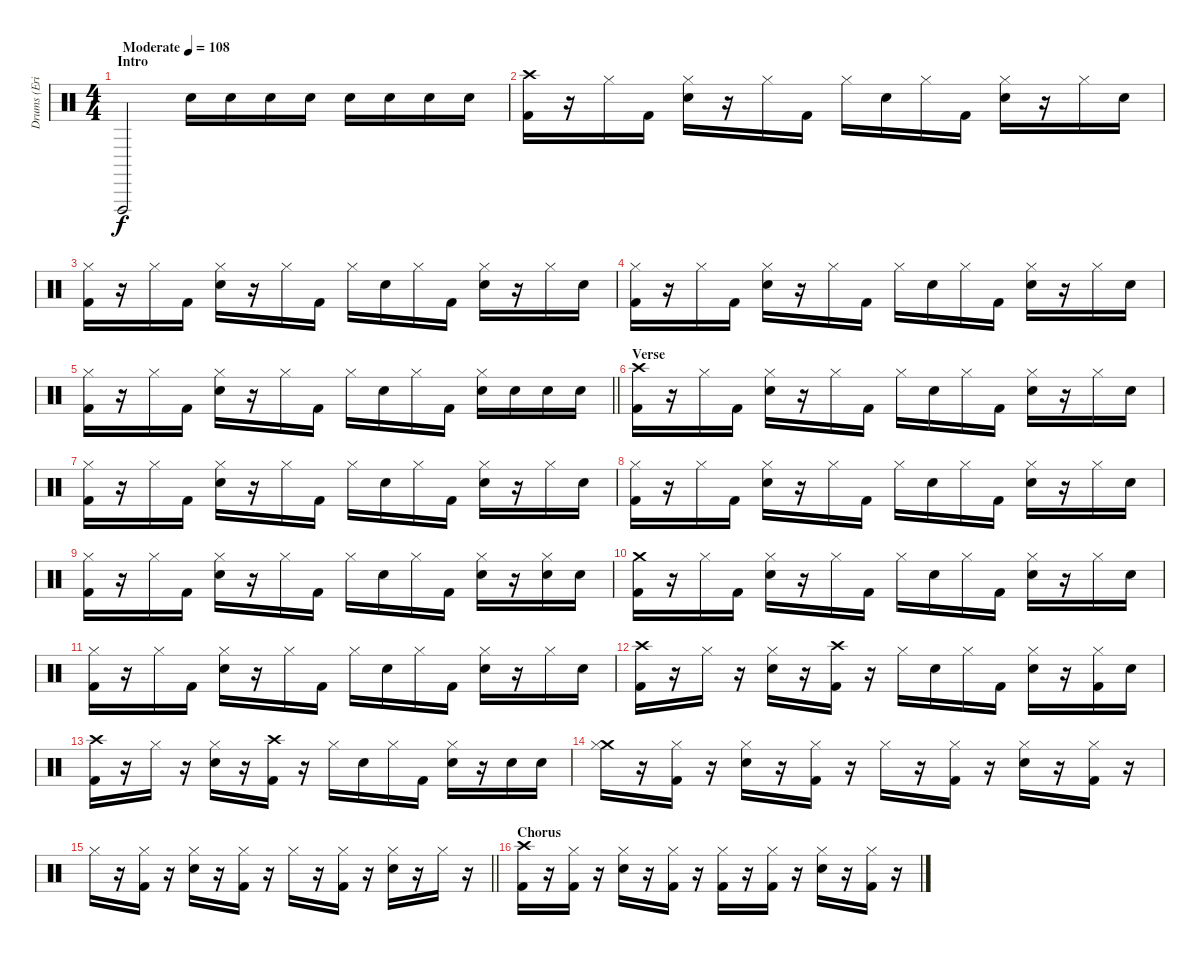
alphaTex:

\track ("Drums (Eric Kretz)" "Drums (Eri") {instrument percussion}
\staff {score}
\articulation defaults
\ts (4 4)
\section ("" "Intro")
\tempo (108 "Moderate")
\clef neutral
\ks c "Vibraslap (hit)".2{dy f} "Electric Snare (hit)".16 "Electric Snare (hit)".16 "Electric Snare (hit)".16 "Electric Snare (hit)".16 "Electric Snare (hit)".16 "Electric Snare (hit)".16 "Electric Snare (hit)".16 "Electric Snare (hit)".16
|
("Crash high (hit)" "Kick (hit) 2").16 r.16 "Hi-Hat (closed)".16 "Kick (hit) 2".16 ("Hi-Hat (closed)" "Electric Snare (hit)").16 r.16 "Hi-Hat (closed)".16 "Kick (hit) 2".16 "Hi-Hat (closed)".16 "Electric Snare (hit)".16 "Hi-Hat (closed)".16 "Kick (hit) 2".16 ("Hi-Hat (closed)" "Electric Snare (hit)").16 r.16 "Hi-Hat (closed)".16 "Electric Snare (hit)".16 |
("Hi-Hat (closed)" "Kick (hit) 2").16 r.16 "Hi-Hat (closed)".16 "Kick (hit) 2".16 ("Hi-Hat (closed)" "Electric Snare (hit)").16 r.16 "Hi-Hat (closed)".16 "Kick (hit) 2".16 "Hi-Hat (closed)".16 "Electric Snare (hit)".16 "Hi-Hat (closed)".16 "Kick (hit) 2".16 ("Hi-Hat (closed)" "Electric Snare (hit)").16 r.16 "Hi-Hat (closed)".16 "Electric Snare (hit)".16 |
("Hi-Hat (closed)" "Kick (hit) 2").16 r.16 "Hi-Hat (closed)".16 "Kick (hit) 2".16 ("Hi-Hat (closed)" "Electric Snare (hit)").16 r.16 "Hi-Hat (closed)".16 "Kick (hit) 2".16 "Hi-Hat (closed)".16 "Electric Snare (hit)".16 "Hi-Hat (closed)".16 "Kick (hit) 2".16 ("Hi-Hat (closed)" "Electric Snare (hit)").16 r.16 "Hi-Hat (closed)".16 "Electric Snare (hit)".16 |
\barLineRight lightlight
("Hi-Hat (closed)" "Kick (hit) 2").16 r.16 "Hi-Hat (closed)".16 "Kick (hit) 2".16 ("Hi-Hat (closed)" "Electric Snare (hit)").16 r.16 "Hi-Hat (closed)".16 "Kick (hit) 2".16 "Hi-Hat (closed)".16 "Electric Snare (hit)".16 "Hi-Hat (closed)".16 "Kick (hit) 2".16 ("Hi-Hat (closed)" "Electric Snare (hit)").16 "Electric Snare (hit)".16 "Electric Snare (hit)".16 "Electric Snare (hit)".16 |
\section ("" "Verse")
("Crash high (hit)" "Kick (hit) 2").16 r.16 "Hi-Hat (closed)".16 "Kick (hit) 2".16 ("Hi-Hat (closed)" "Electric Snare (hit)").16 r.16 "Hi-Hat (closed)".16 "Kick (hit) 2".16 "Hi-Hat (closed)".16 "Electric Snare (hit)".16 "Hi-Hat (closed)".16 "Kick (hit) 2".16 ("Hi-Hat (closed)" "Electric Snare (hit)").16 r.16 "Hi-Hat (closed)".16 "Electric Snare (hit)".16 |
("Hi-Hat (closed)" "Kick (hit) 2").16 r.16 "Hi-Hat (closed)".16 "Kick (hit) 2".16 ("Hi-Hat (closed)" "Electric Snare (hit)").16 r.16 "Hi-Hat (closed)".16 "Kick (hit) 2".16 "Hi-Hat (closed)".16 "Electric Snare (hit)".16 "Hi-Hat (closed)".16 "Kick (hit) 2".16 ("Hi-Hat (closed)" "Electric Snare (hit)").16 r.16 "Hi-Hat (closed)".16 "Electric Snare (hit)".16 |
("Hi-Hat (closed)" "Kick (hit) 2").16 r.16 "Hi-Hat (closed)".16 "Kick (hit) 2".16 ("Hi-Hat (closed)" "Electric Snare (hit)").16 r.16 "Hi-Hat (closed)".16 "Kick (hit) 2".16 "Hi-Hat (closed)".16 "Electric Snare (hit)".16 "Hi-Hat (closed)".16 "Kick (hit) 2".16 ("Hi-Hat (closed)" "Electric Snare (hit)").16 r.16 "Hi-Hat (closed)".16 "Electric Snare (hit)".16 |
("Hi-Hat (closed)" "Kick (hit) 2").16 r.16 "Hi-Hat (closed)".16 "Kick (hit) 2".16 ("Hi-Hat (closed)" "Electric Snare (hit)").16 r.16 "Hi-Hat (closed)".16 "Kick (hit) 2".16 "Hi-Hat (closed)".16 "Electric Snare (hit)".16 "Hi-Hat (closed)".16 "Kick (hit) 2".16 ("Hi-Hat (closed)" "Electric Snare (hit)").16 r.16 ("Hi-Hat (closed)" "Electric Snare (hit)").16 "Electric Snare (hit)".16 |
("Crash medium (hit)" "Kick (hit) 2").16 r.16 "Hi-Hat (closed)".16 "Kick (hit) 2".16 ("Hi-Hat (closed)" "Electric Snare (hit)").16 r.16 "Hi-Hat (closed)".16 "Kick (hit) 2".16 "Hi-Hat (closed)".16 "Electric Snare (hit)".16 "Hi-Hat (closed)".16 "Kick (hit) 2".16 ("Hi-Hat (closed)" "Electric Snare (hit)").16 r.16 "Hi-Hat (closed)".16 "Electric Snare (hit)".16 |
("Hi-Hat (closed)" "Kick (hit) 2").16 r.16 "Hi-Hat (closed)".16 "Kick (hit) 2".16 ("Hi-Hat (closed)" "Electric Snare (hit)").16 r.16 "Hi-Hat (closed)".16 "Kick (hit) 2".16 "Hi-Hat (closed)".16 "Electric Snare (hit)".16 "Hi-Hat (closed)".16 "Kick (hit) 2".16 ("Hi-Hat (closed)" "Electric Snare (hit)").16 r.16 "Hi-Hat (closed)".16 "Electric Snare (hit)".16 |
("Crash high (hit)" "Kick (hit) 2").16 r.16 "Hi-Hat (closed)".16 r.16 ("Hi-Hat (closed)" "Electric Snare (hit)").16 r.16 ("Crash high (hit)" "Kick (hit) 2").16 r.16 "Hi-Hat (closed)".16 "Electric Snare (hit)".16 "Hi-Hat (closed)".16 "Kick (hit) 2".16 ("Hi-Hat (closed)" "Electric Snare (hit)").16 r.16 ("Hi-Hat (closed)" "Kick (hit) 2").16 "Electric Snare (hit)".16 |
("Crash high (hit)" "Kick (hit) 2").16 r.16 "Hi-Hat (closed)".16 r.16 ("Hi-Hat (closed)" "Electric Snare (hit)").16 r.16 ("Crash high (hit)" "Kick (hit) 2").16 r.16 "Hi-Hat (closed)".16 "Electric Snare (hit)".16 "Hi-Hat (closed)".16 "Kick (hit) 2".16 ("Hi-Hat (closed)" "Electric Snare (hit)").16 r.16 "Electric Snare (hit)".16 "Electric Snare (hit)".16 |
("Crash medium (hit)" "Hi-Hat (closed)").16 r.16 ("Hi-Hat (closed)" "Kick (hit) 2").16 r.16 ("Hi-Hat (closed)" "Electric Snare (hit)").16 r.16 ("Hi-Hat (closed)" "Kick (hit) 2").16 r.16 "Hi-Hat (closed)".16 r.16 ("Hi-Hat (closed)" "Kick (hit) 2").16 r.16 ("Hi-Hat (closed)" "Electric Snare (hit)").16 r.16 ("Hi-Hat (closed)" "Kick (hit) 2").16 r.16 |
\barLineRight lightlight "Hi-Hat (closed)".16
r.16 ("Hi-Hat (closed)" "Kick (hit) 2").16 r.16 ("Hi-Hat (closed)" "Electric Snare (hit)").16 r.16 ("Hi-Hat (closed)" "Kick (hit) 2").16 r.16 "Hi-Hat (closed)".16 r.16 ("Hi-Hat (closed)" "Kick (hit) 2").16 r.16 ("Hi-Hat (closed)" "Electric Snare (hit)").16 r.16 "Hi-Hat (closed)".16 r.16 |
\section ("" "Chorus")
("Crash high (hit)" "Kick (hit) 2").16 r.16 ("Hi-Hat (closed)" "Kick (hit) 2").16 r.16 ("Hi-Hat (closed)" "Electric Snare (hit)").16 r.16 ("Hi-Hat (closed)" "Kick (hit) 2").16 r.16 ("Hi-Hat (closed)" "Kick (hit) 2").16 r.16 ("Hi-Hat (closed)" "Kick (hit) 2").16 r.16 ("Hi-Hat (closed)" "Electric Snare (hit)").16 r.16 ("Hi-Hat (closed)" "Kick (hit) 2").16 r.16
